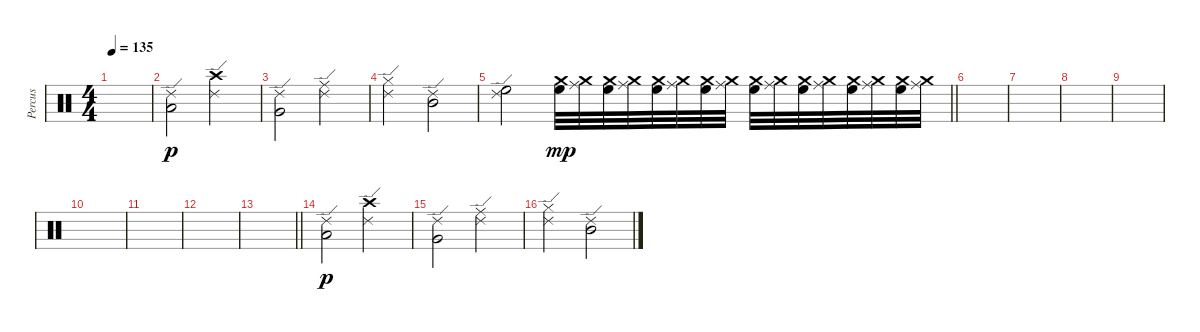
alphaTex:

\track ("Percus" "Percus") {instrument percussion}
\staff {score}
\articulation defaults
\ts (4 4)
\tempo 135
\clef neutral
\ks c
|
("Ride (edge) 2" "Low Floor Tom (hit)").2{dy p} ("Ride (edge) 2" "Crash high (hit)").2 |
("Ride (edge) 2" "Very Low Tom (hit)").2 ("Ride (edge) 2" "Ride (middle)").2 |
("Ride (edge) 2" "Hi-Hat (closed)").2 ("Ride (edge) 2" "Mid Tom (hit)").2 |
\barLineRight lightlight
("Ride (edge) 2" "High Floor Tom (hit)").2 ("Crash medium (hit)" "High Floor Tom (hit)").32{dy mp} ("Crash medium (hit)" "Ride (middle)").32 ("Crash medium (hit)" "High Floor Tom (hit)").32 ("Crash medium (hit)" "Ride (middle)").32 ("Crash medium (hit)" "High Floor Tom (hit)").32 ("Crash medium (hit)" "Ride (middle)").32 ("Crash medium (hit)" "High Floor Tom (hit)").32 ("Crash medium (hit)" "Ride (middle)").32 ("Crash medium (hit)" "High Floor Tom (hit)").32 ("Crash medium (hit)" "Ride (middle)").32 ("Crash medium (hit)" "High Floor Tom (hit)").32 ("Crash medium (hit)" "Ride (middle)").32 ("Crash medium (hit)" "High Floor Tom (hit)").32 ("Crash medium (hit)" "Ride (middle)").32 ("Crash medium (hit)" "High Floor Tom (hit)").32 ("Crash medium (hit)" "Ride (middle)").32 |
\section ("" "")
|
|
|
|
|
|
|
\barLineRight lightlight
|
\section ("" "")
("Ride (edge) 2" "Low Floor Tom (hit)").2{dy p} ("Ride (edge) 2" "Crash high (hit)").2 |
("Ride (edge) 2" "Very Low Tom (hit)").2 ("Ride (edge) 2" "Ride (middle)").2 |
("Ride (edge) 2" "Hi-Hat (closed)").2 ("Ride (edge) 2" "Mid Tom (hit)").2
